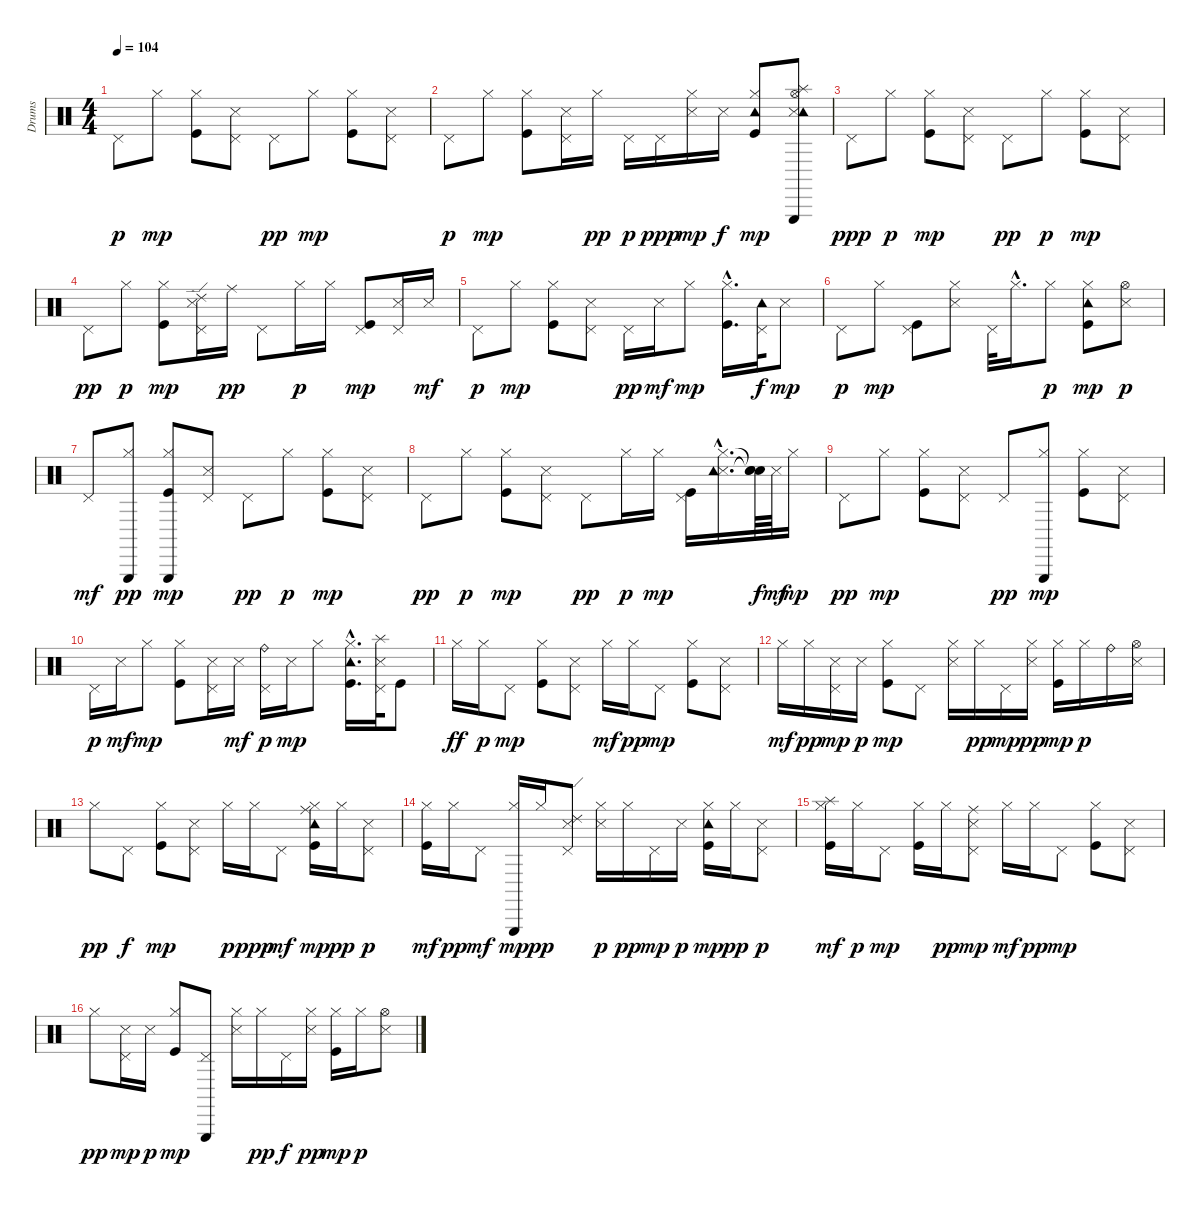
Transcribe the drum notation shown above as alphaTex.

\track ("Drums" "Drums") {instrument percussion}
\staff {score}
\articulation defaults
\ts (4 4)
\tempo 104
\clef neutral
\ks c "Pedal Hi-Hat (hit)".8{dy p} "Hi-Hat (closed)".8{dy mp}
("Hi-Hat (closed)" "Kick (hit)").8 ("Pedal Hi-Hat (hit)" "Snare (side stick) 3").8 "Pedal Hi-Hat (hit)".8{dy pp} "Hi-Hat (closed)".8{dy mp} ("Hi-Hat (closed)" "Kick (hit)").8 ("Pedal Hi-Hat (hit)" "Snare (side stick) 3").8 |
"Pedal Hi-Hat (hit)".8{dy p} "Hi-Hat (closed)".8{dy mp} ("Hi-Hat (closed)" "Kick (hit)").8 ("Pedal Hi-Hat (hit)" "Snare (side stick) 3").16 "Hi-Hat (closed)".16{dy pp} "Pedal Hi-Hat (hit)".16{dy p} "Pedal Hi-Hat (hit)".16{dy ppp} ("Hi-Hat (closed)" "Snare (side stick) 3").16{dy mp} "Snare (side stick) 3".16{dy f} ("Hi-Hat (closed)" "Tambourine (hit)" "Kick (hit)").8{dy mp} ("Hi-Hat (open)" "Splash (hit)" "Snare (side stick) 3" "Tambourine (hit)" "Triangle (hit)").8 |
"Pedal Hi-Hat (hit)".8{dy ppp} "Hi-Hat (closed)".8{dy p} ("Hi-Hat (closed)" "Kick (hit)").8{dy mp} ("Pedal Hi-Hat (hit)" "Snare (side stick) 3").8 "Pedal Hi-Hat (hit)".8{dy pp} "Hi-Hat (closed)".8{dy p} ("Hi-Hat (closed)" "Kick (hit)").8{dy mp} ("Pedal Hi-Hat (hit)" "Snare (side stick) 3").8 |
"Pedal Hi-Hat (hit)".8{dy pp} "Hi-Hat (closed)".8{dy p} ("Hi-Hat (closed)" "Kick (hit)").8{dy mp} ("Pedal Hi-Hat (hit)" "Ride (edge) 2" "Snare (side stick) 3").16 "Ride (middle)".16{dy pp} "Pedal Hi-Hat (hit)".8 "Hi-Hat (closed)".16{dy p} "Hi-Hat (closed)".16 ("Pedal Hi-Hat (hit)" "Kick (hit)").8{dy mp} ("Pedal Hi-Hat (hit)" "Snare (side stick) 3").16 "Snare (side stick) 3".16{dy mf} |
"Pedal Hi-Hat (hit)".8{dy p} "Hi-Hat (closed)".8{dy mp} ("Hi-Hat (closed)" "Kick (hit)").8 ("Pedal Hi-Hat (hit)" "Snare (side stick) 3").8 "Pedal Hi-Hat (hit)".16{dy pp} "Snare (side stick) 3".16{dy mf} "Hi-Hat (closed)".8{dy mp} ("Hi-Hat (closed)"{hac} "Kick (hit)"{hac}).16{d} ("Pedal Hi-Hat (hit)" "Tambourine (hit)").32{dy f} "Snare (side stick) 3".8{dy mp} |
"Pedal Hi-Hat (hit)".8{dy p} "Hi-Hat (closed)".8{dy mp} ("Pedal Hi-Hat (hit)" "Kick (hit)").8 ("Hi-Hat (closed)" "Snare (side stick) 3").8 "Pedal Hi-Hat (hit)".32 "Hi-Hat (closed)"{hac}.16{d} "Hi-Hat (closed)".8{dy p} ("Hi-Hat (closed)" "Tambourine (hit)" "Kick (hit)").8{dy mp} ("Hi-Hat (open)" "Snare (side stick) 3").8{dy p} |
"Pedal Hi-Hat (hit)".8{dy mf} ("Hi-Hat (closed)" "Triangle (hit)").8{dy pp} ("Hi-Hat (closed)" "Triangle (hit)" "Kick (hit)").8{dy mp} ("Pedal Hi-Hat (hit)" "Snare (side stick) 3").8 "Pedal Hi-Hat (hit)".8{dy pp} "Hi-Hat (closed)".8{dy p} ("Hi-Hat (closed)" "Kick (hit)").8{dy mp} ("Pedal Hi-Hat (hit)" "Snare (side stick) 3").8 |
"Pedal Hi-Hat (hit)".8{dy pp} "Hi-Hat (closed)".8{dy p} ("Hi-Hat (closed)" "Kick (hit)").8{dy mp} ("Pedal Hi-Hat (hit)" "Snare (side stick) 3").8 "Pedal Hi-Hat (hit)".8{dy pp} "Hi-Hat (closed)".16{dy p} "Hi-Hat (closed)".16{dy mp} ("Pedal Hi-Hat (hit)" "Kick (hit)").16 ("Hi-Hat (closed)"{hac} "Snare (side stick) 3"{hac} "Tambourine (hit)"{hac}).16{d} ("Snare (hit)"{t} "Snare (hit)"{t} "Snare (hit)"{t}).64{dy f} "Snare (side stick) 3".64{dy mf} "Hi-Hat (closed)".16{dy mp} |
"Pedal Hi-Hat (hit)".8{dy pp} "Hi-Hat (closed)".8{dy mp} ("Hi-Hat (closed)" "Kick (hit)").8 ("Pedal Hi-Hat (hit)" "Snare (side stick) 3").8 "Pedal Hi-Hat (hit)".8{dy pp} ("Hi-Hat (closed)" "Triangle (hit)").8{dy mp} ("Hi-Hat (closed)" "Kick (hit)").8 ("Pedal Hi-Hat (hit)" "Snare (side stick) 3").8 |
"Pedal Hi-Hat (hit)".16{dy p} "Snare (side stick) 3".16{dy mf} "Hi-Hat (closed)".8{dy mp} ("Hi-Hat (closed)" "Kick (hit)").8 ("Pedal Hi-Hat (hit)" "Snare (side stick) 3").16 "Snare (side stick) 3".16{dy mf} ("Pedal Hi-Hat (hit)" "Ride (bell)").16{dy p} "Snare (side stick) 3".16{dy mp} "Hi-Hat (closed)".8 ("Hi-Hat (closed)"{hac} "Tambourine (hit)"{hac} "Kick (hit)"{hac}).16{d} ("Pedal Hi-Hat (hit)" "Splash (hit)" "Snare (side stick) 3").32 "Kick (hit)".8 |
"Hi-Hat (closed)".16{dy ff} "Hi-Hat (closed)".16{dy p} "Pedal Hi-Hat (hit)".8{dy mp} ("Hi-Hat (closed)" "Kick (hit)").8 ("Pedal Hi-Hat (hit)" "Snare (side stick) 3").8 "Hi-Hat (closed)".16{dy mf} "Hi-Hat (closed)".16{dy pp} "Pedal Hi-Hat (hit)".8{dy mp} ("Hi-Hat (closed)" "Kick (hit)").8 ("Pedal Hi-Hat (hit)" "Snare (side stick) 3").8 |
"Hi-Hat (closed)".16{dy mf} "Hi-Hat (closed)".16{dy pp} ("Pedal Hi-Hat (hit)" "Snare (side stick) 3").16{dy mp} "Snare (side stick) 3".16{dy p} ("Hi-Hat (closed)" "Kick (hit)").8{dy mp} "Pedal Hi-Hat (hit)".8 ("Hi-Hat (closed)" "Snare (side stick) 3").16 "Hi-Hat (closed)".16{dy pp} "Pedal Hi-Hat (hit)".16{dy mp} ("Hi-Hat (closed)" "Snare (side stick) 3").16{dy pp} ("Hi-Hat (closed)" "Kick (hit)").16{dy mp} "Hi-Hat (closed)".16{dy p} "Ride (bell)".16 ("Hi-Hat (open)" "Snare (side stick) 3").16 |
"Hi-Hat (closed)".8{dy pp} "Pedal Hi-Hat (hit)".8{dy f} ("Hi-Hat (closed)" "Kick (hit)").8{dy mp} ("Pedal Hi-Hat (hit)" "Snare (side stick) 3").8 "Hi-Hat (closed)".16{dy p} "Hi-Hat (closed)".16{dy ppp} "Pedal Hi-Hat (hit)".8{dy mf} ("Hi-Hat (closed)" "Ride (middle)" "Tambourine (hit)" "Kick (hit)").16{dy mp} "Hi-Hat (closed)".16{dy pp} ("Pedal Hi-Hat (hit)" "Snare (side stick) 3").8{dy p} |
("Hi-Hat (closed)" "Kick (hit)").16{dy mf} "Hi-Hat (closed)".16{dy pp} "Pedal Hi-Hat (hit)".8{dy mf} ("Hi-Hat (closed)" "Triangle (hit)").16{dy mp} "Hi-Hat (closed)".16{dy pp} ("Pedal Hi-Hat (hit)" "Ride (edge) 2" "Snare (side stick) 3").8 ("Hi-Hat (closed)" "Snare (side stick) 3").16{dy p} "Hi-Hat (closed)".16{dy pp} "Pedal Hi-Hat (hit)".16{dy mp} "Snare (side stick) 3".16{dy p} ("Hi-Hat (closed)" "Tambourine (hit)" "Kick (hit)").16{dy mp} "Hi-Hat (closed)".16{dy pp} ("Pedal Hi-Hat (hit)" "Snare (side stick) 3").8{dy p} |
("Hi-Hat (closed)" "Splash (hit)" "Kick (hit)").16{dy mf} "Hi-Hat (closed)".16{dy p} "Pedal Hi-Hat (hit)".8{dy mp} ("Hi-Hat (closed)" "Kick (hit)").16 "Hi-Hat (closed)".16{dy pp} ("Pedal Hi-Hat (hit)" "Ride (middle)" "Snare (side stick) 3").8{dy mp} "Hi-Hat (closed)".16{dy mf} "Hi-Hat (closed)".16{dy pp} "Pedal Hi-Hat (hit)".8{dy mp} ("Hi-Hat (closed)" "Kick (hit)").8 ("Pedal Hi-Hat (hit)" "Snare (side stick) 3").8 |
"Hi-Hat (closed)".8{dy pp} ("Pedal Hi-Hat (hit)" "Snare (side stick) 3").16{dy mp} "Snare (side stick) 3".16{dy p} ("Hi-Hat (closed)" "Kick (hit)").8{dy mp} ("Pedal Hi-Hat (hit)" "Triangle (hit)").8 ("Hi-Hat (closed)" "Snare (side stick) 3").16 "Hi-Hat (closed)".16{dy pp} "Pedal Hi-Hat (hit)".16{dy f} ("Hi-Hat (closed)" "Snare (side stick) 3").16{dy pp} ("Hi-Hat (closed)" "Kick (hit)").16{dy mp} "Hi-Hat (closed)".16{dy p} ("Hi-Hat (open)" "Snare (side stick) 3").8
